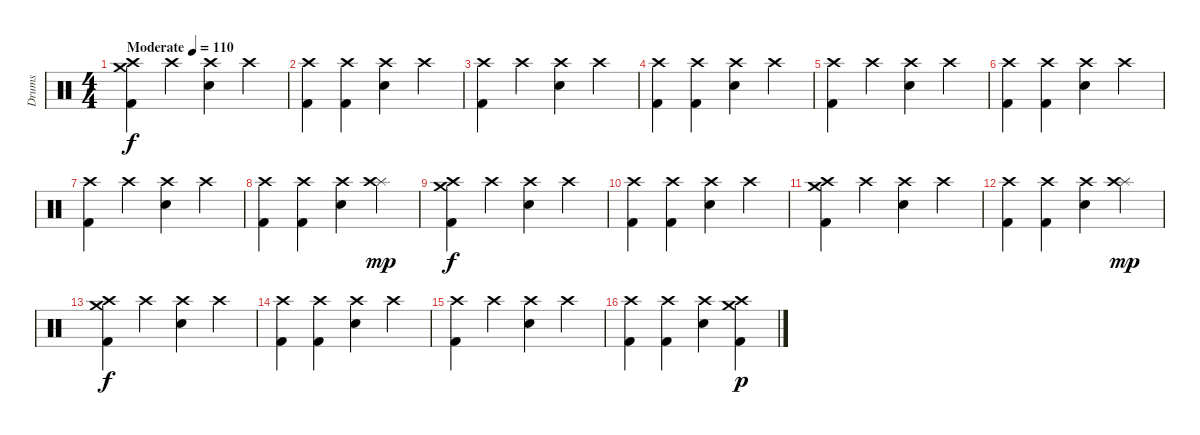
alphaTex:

\track ("Drums" "Drums") {instrument percussion}
\staff {score}
\articulation defaults
\ts (4 4)
\tempo (110 "Moderate")
\clef neutral
\ks c
("Crash medium (hit)" "Crash high (hit)" "Kick (hit) 2").4{dy f} "Crash high (hit)".4 ("Crash high (hit)" "Snare (hit) 2").4 "Crash high (hit)".4 |
("Crash high (hit)" "Kick (hit) 2").4 ("Crash high (hit)" "Kick (hit) 2").4 ("Crash high (hit)" "Snare (hit) 2").4 "Crash high (hit)".4 |
("Crash high (hit)" "Kick (hit) 2").4 "Crash high (hit)".4 ("Crash high (hit)" "Snare (hit) 2").4 "Crash high (hit)".4 |
("Crash high (hit)" "Kick (hit) 2").4 ("Crash high (hit)" "Kick (hit) 2").4 ("Crash high (hit)" "Snare (hit) 2").4 "Crash high (hit)".4 |
("Crash high (hit)" "Kick (hit) 2").4 "Crash high (hit)".4 ("Crash high (hit)" "Snare (hit) 2").4 "Crash high (hit)".4 |
("Crash high (hit)" "Kick (hit) 2").4 ("Crash high (hit)" "Kick (hit) 2").4 ("Crash high (hit)" "Snare (hit) 2").4 "Crash high (hit)".4 |
("Crash high (hit)" "Kick (hit) 2").4 "Crash high (hit)".4 ("Crash high (hit)" "Snare (hit) 2").4 "Crash high (hit)".4 |
("Crash high (hit)" "Kick (hit) 2").4 ("Crash high (hit)" "Kick (hit) 2").4 ("Crash high (hit)" "Snare (hit) 2").4 ("Splash (hit)" "Crash high (hit)").4{dy mp} |
("Crash medium (hit)" "Crash high (hit)" "Kick (hit) 2").4{dy f} "Crash high (hit)".4 ("Crash high (hit)" "Snare (hit) 2").4 "Crash high (hit)".4 |
("Crash high (hit)" "Kick (hit) 2").4 ("Crash high (hit)" "Kick (hit) 2").4 ("Crash high (hit)" "Snare (hit) 2").4 "Crash high (hit)".4 |
("Crash medium (hit)" "Crash high (hit)" "Kick (hit) 2").4 "Crash high (hit)".4 ("Crash high (hit)" "Snare (hit) 2").4 "Crash high (hit)".4 |
("Crash high (hit)" "Kick (hit) 2").4 ("Crash high (hit)" "Kick (hit) 2").4 ("Crash high (hit)" "Snare (hit) 2").4 ("Splash (hit)" "Crash high (hit)").4{dy mp} |
("Crash medium (hit)" "Crash high (hit)" "Kick (hit) 2").4{dy f} "Crash high (hit)".4 ("Crash high (hit)" "Snare (hit) 2").4 "Crash high (hit)".4 |
("Crash high (hit)" "Kick (hit) 2").4 ("Crash high (hit)" "Kick (hit) 2").4 ("Crash high (hit)" "Snare (hit) 2").4 "Crash high (hit)".4 |
("Crash high (hit)" "Kick (hit) 2").4 "Crash high (hit)".4 ("Crash high (hit)" "Snare (hit) 2").4 "Crash high (hit)".4 |
("Crash high (hit)" "Kick (hit) 2").4 ("Crash high (hit)" "Kick (hit) 2").4 ("Crash high (hit)" "Snare (hit) 2").4 ("Crash medium (hit)" "Crash high (hit)" "Kick (hit) 2").4{dy p}
